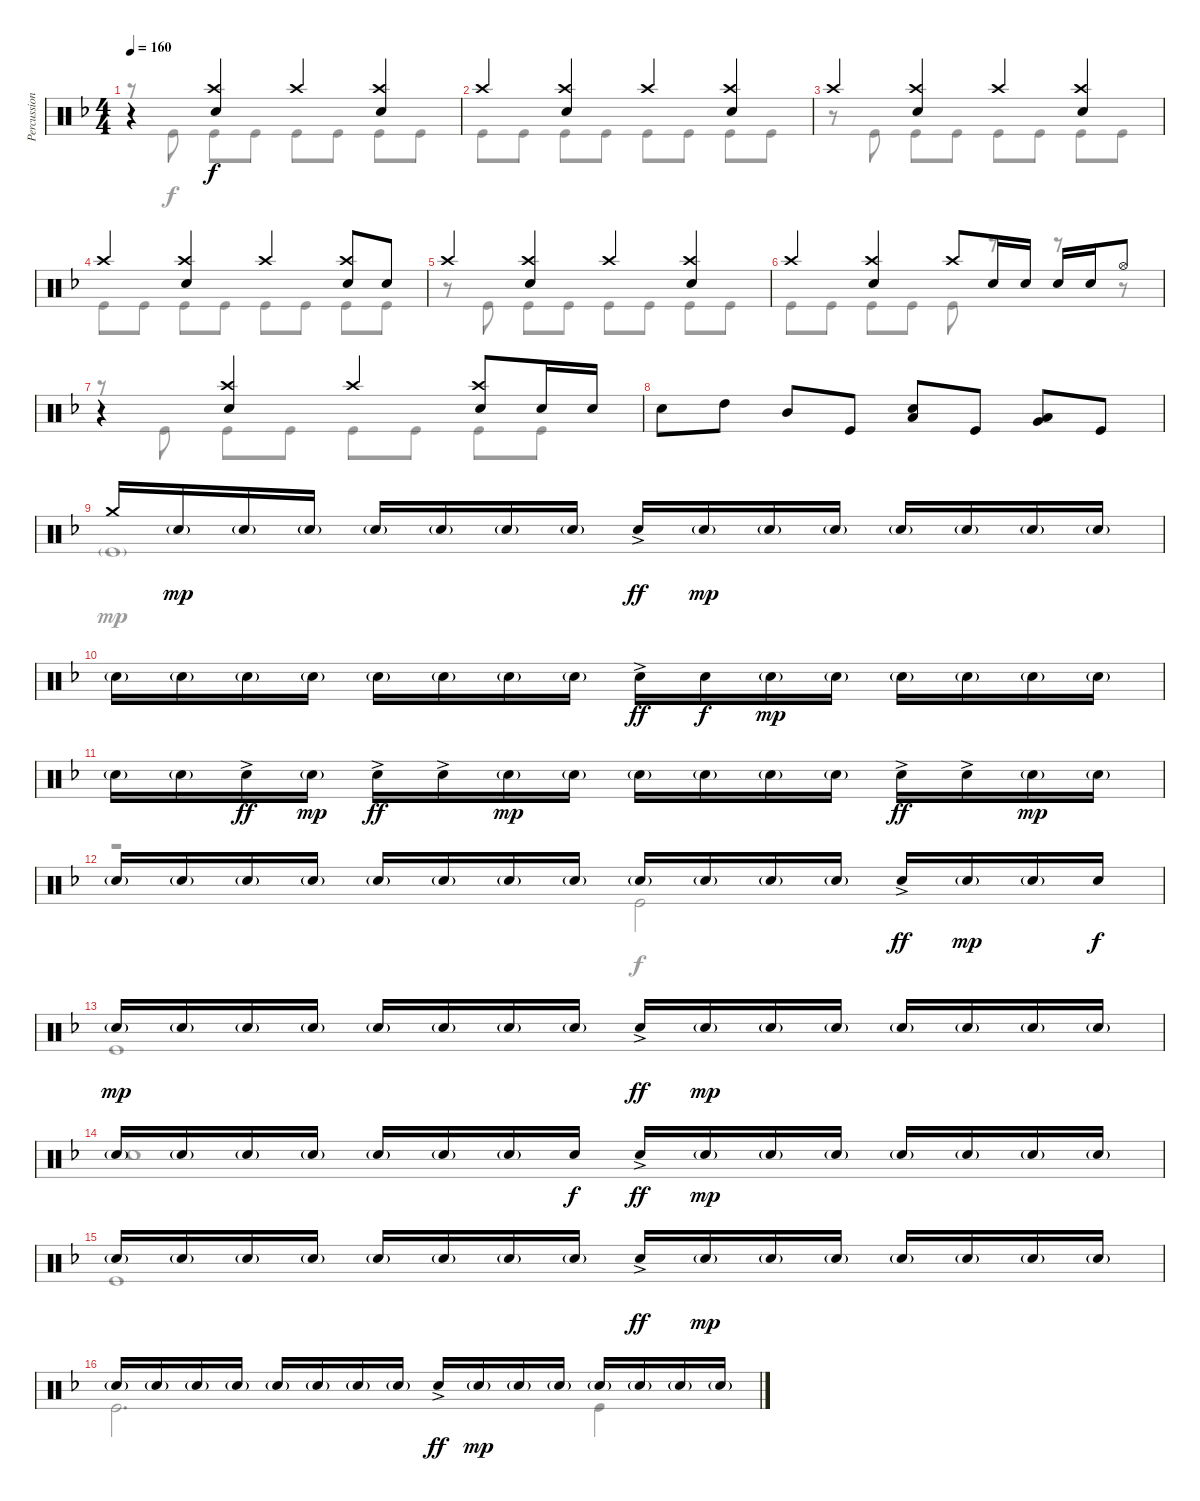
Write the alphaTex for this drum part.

\track ("Percussion" "Percussion") {instrument percussion}
\staff {score}
\articulation defaults
\voice
\ts (4 4)
\tempo 160
\clef neutral
\ks dminor
r.4{dy f} ("Crash high (hit)" "Snare (hit) 2").4 "Crash high (hit)".4 ("Crash high (hit)" "Snare (hit) 2").4 |
"Crash high (hit)".4 ("Crash high (hit)" "Snare (hit) 2").4 "Crash high (hit)".4 ("Crash high (hit)" "Snare (hit) 2").4 |
"Crash high (hit)".4 ("Crash high (hit)" "Snare (hit) 2").4 "Crash high (hit)".4 ("Crash high (hit)" "Snare (hit) 2").4 |
"Crash high (hit)".4 ("Crash high (hit)" "Snare (hit) 2").4 "Crash high (hit)".4 ("Crash high (hit)" "Snare (hit) 2").8 "Snare (hit) 2".8 |
"Crash high (hit)".4 ("Crash high (hit)" "Snare (hit) 2").4 "Crash high (hit)".4 ("Crash high (hit)" "Snare (hit) 2").4 |
"Crash high (hit)".4 ("Crash high (hit)" "Snare (hit) 2").4 "Crash high (hit)".8 "Snare (hit) 2".16 "Snare (hit) 2".16 "Snare (hit) 2".16 "Snare (hit) 2".16 "Hi-Hat (open)".8 |
r.4 ("Crash high (hit)" "Snare (hit) 2").4 "Crash high (hit)".4 ("Crash high (hit)" "Snare (hit) 2").8 "Snare (hit) 2".16 "Snare (hit) 2".16 |
"Snare (hit) 2".8 "High Tom (hit)".8 "Mid Tom (hit)".8 "Kick (hit)".8 ("Snare (hit) 2" "Low Tom (hit)").8 "Kick (hit)".8 ("Low Tom (hit)" "Very Low Tom (hit)").8 "Kick (hit)".8 |
"Crash medium (hit)".16 "Snare (hit) 2"{g}.16{dy mp} "Snare (hit) 2"{g}.16 "Snare (hit) 2"{g}.16 "Snare (hit) 2"{g}.16 "Snare (hit) 2"{g}.16 "Snare (hit) 2"{g}.16 "Snare (hit) 2"{g}.16 "Snare (hit) 2"{ac}.16{dy ff} "Snare (hit) 2"{g}.16{dy mp} "Snare (hit) 2"{g}.16 "Snare (hit) 2"{g}.16 "Snare (hit) 2"{g}.16 "Snare (hit) 2"{g}.16 "Snare (hit) 2"{g}.16 "Snare (hit) 2"{g}.16 |
"Snare (hit) 2"{g}.16 "Snare (hit) 2"{g}.16 "Snare (hit) 2"{g}.16 "Snare (hit) 2"{g}.16 "Snare (hit) 2"{g}.16 "Snare (hit) 2"{g}.16 "Snare (hit) 2"{g}.16 "Snare (hit) 2"{g}.16 "Snare (hit) 2"{ac}.16{dy ff} "Snare (hit) 2".16{dy f} "Snare (hit) 2"{g}.16{dy mp} "Snare (hit) 2"{g}.16 "Snare (hit) 2"{g}.16 "Snare (hit) 2"{g}.16 "Snare (hit) 2"{g}.16 "Snare (hit) 2"{g}.16 |
"Snare (hit) 2"{g}.16 "Snare (hit) 2"{g}.16 "Snare (hit) 2"{ac}.16{dy ff} "Snare (hit) 2"{g}.16{dy mp} "Snare (hit) 2"{ac}.16{dy ff} "Snare (hit) 2"{ac}.16 "Snare (hit) 2"{g}.16{dy mp} "Snare (hit) 2"{g}.16 "Snare (hit) 2"{g}.16 "Snare (hit) 2"{g}.16 "Snare (hit) 2"{g}.16 "Snare (hit) 2"{g}.16 "Snare (hit) 2"{ac}.16{dy ff} "Snare (hit) 2"{ac}.16 "Snare (hit) 2"{g}.16{dy mp} "Snare (hit) 2"{g}.16 |
"Snare (hit) 2"{g}.16 "Snare (hit) 2"{g}.16 "Snare (hit) 2"{g}.16 "Snare (hit) 2"{g}.16 "Snare (hit) 2"{g}.16 "Snare (hit) 2"{g}.16 "Snare (hit) 2"{g}.16 "Snare (hit) 2"{g}.16 "Snare (hit) 2"{g}.16 "Snare (hit) 2"{g}.16 "Snare (hit) 2"{g}.16 "Snare (hit) 2"{g}.16 "Snare (hit) 2"{ac}.16{dy ff} "Snare (hit) 2"{g}.16{dy mp} "Snare (hit) 2"{g}.16 "Snare (hit) 2".16{dy f} |
"Snare (hit) 2"{g}.16{dy mp} "Snare (hit) 2"{g}.16 "Snare (hit) 2"{g}.16 "Snare (hit) 2"{g}.16 "Snare (hit) 2"{g}.16 "Snare (hit) 2"{g}.16 "Snare (hit) 2"{g}.16 "Snare (hit) 2"{g}.16 "Snare (hit) 2"{ac}.16{dy ff} "Snare (hit) 2"{g}.16{dy mp} "Snare (hit) 2"{g}.16 "Snare (hit) 2"{g}.16 "Snare (hit) 2"{g}.16 "Snare (hit) 2"{g}.16 "Snare (hit) 2"{g}.16 "Snare (hit) 2"{g}.16 |
"Snare (hit) 2"{g}.16 "Snare (hit) 2"{g}.16 "Snare (hit) 2"{g}.16 "Snare (hit) 2"{g}.16 "Snare (hit) 2"{g}.16 "Snare (hit) 2"{g}.16 "Snare (hit) 2"{g}.16 "Snare (hit) 2".16{dy f} "Snare (hit) 2"{ac}.16{dy ff} "Snare (hit) 2"{g}.16{dy mp} "Snare (hit) 2"{g}.16 "Snare (hit) 2"{g}.16 "Snare (hit) 2"{g}.16 "Snare (hit) 2"{g}.16 "Snare (hit) 2"{g}.16 "Snare (hit) 2"{g}.16 |
"Snare (hit) 2"{g}.16 "Snare (hit) 2"{g}.16 "Snare (hit) 2"{g}.16 "Snare (hit) 2"{g}.16 "Snare (hit) 2"{g}.16 "Snare (hit) 2"{g}.16 "Snare (hit) 2"{g}.16 "Snare (hit) 2"{g}.16 "Snare (hit) 2"{ac}.16{dy ff} "Snare (hit) 2"{g}.16{dy mp} "Snare (hit) 2"{g}.16 "Snare (hit) 2"{g}.16 "Snare (hit) 2"{g}.16 "Snare (hit) 2"{g}.16 "Snare (hit) 2"{g}.16 "Snare (hit) 2"{g}.16 |
"Snare (hit) 2"{g}.16 "Snare (hit) 2"{g}.16 "Snare (hit) 2"{g}.16 "Snare (hit) 2"{g}.16 "Snare (hit) 2"{g}.16 "Snare (hit) 2"{g}.16 "Snare (hit) 2"{g}.16 "Snare (hit) 2"{g}.16 "Snare (hit) 2"{ac}.16{dy ff} "Snare (hit) 2"{g}.16{dy mp} "Snare (hit) 2"{g}.16 "Snare (hit) 2"{g}.16 "Snare (hit) 2"{g}.16 "Snare (hit) 2"{g}.16 "Snare (hit) 2"{g}.16 "Snare (hit) 2"{g}.16
\voice
\clef neutral
\ottava regular
\simile none
\ks dminor
r.8{dy f} "Kick (hit)".8 "Kick (hit)".8 "Kick (hit)".8 "Kick (hit)".8 "Kick (hit)".8 "Kick (hit)".8 "Kick (hit)".8 |
"Kick (hit)".8 "Kick (hit)".8 "Kick (hit)".8 "Kick (hit)".8 "Kick (hit)".8 "Kick (hit)".8 "Kick (hit)".8 "Kick (hit)".8 |
r.8 "Kick (hit)".8 "Kick (hit)".8 "Kick (hit)".8 "Kick (hit)".8 "Kick (hit)".8 "Kick (hit)".8 "Kick (hit)".8 |
"Kick (hit)".8 "Kick (hit)".8 "Kick (hit)".8 "Kick (hit)".8 "Kick (hit)".8 "Kick (hit)".8 "Kick (hit)".8 "Kick (hit)".8 |
r.8 "Kick (hit)".8 "Kick (hit)".8 "Kick (hit)".8 "Kick (hit)".8 "Kick (hit)".8 "Kick (hit)".8 "Kick (hit)".8 |
"Kick (hit)".8 "Kick (hit)".8 "Kick (hit)".8 "Kick (hit)".8 "Kick (hit)".8 r.8 r.8 r.8 |
r.8 "Kick (hit)".8 "Kick (hit)".8 "Kick (hit)".8 "Kick (hit)".8 "Kick (hit)".8 "Kick (hit)".8 "Kick (hit)".8 |
|
"Kick (hit)"{g}.1{dy mp} |
|
|
r.2 "Kick (hit)".2{dy f} |
"Kick (hit)".1 |
"Snare (hit)".1 |
"Kick (hit)".1 |
"Kick (hit)".2{d} "Kick (hit)".4
